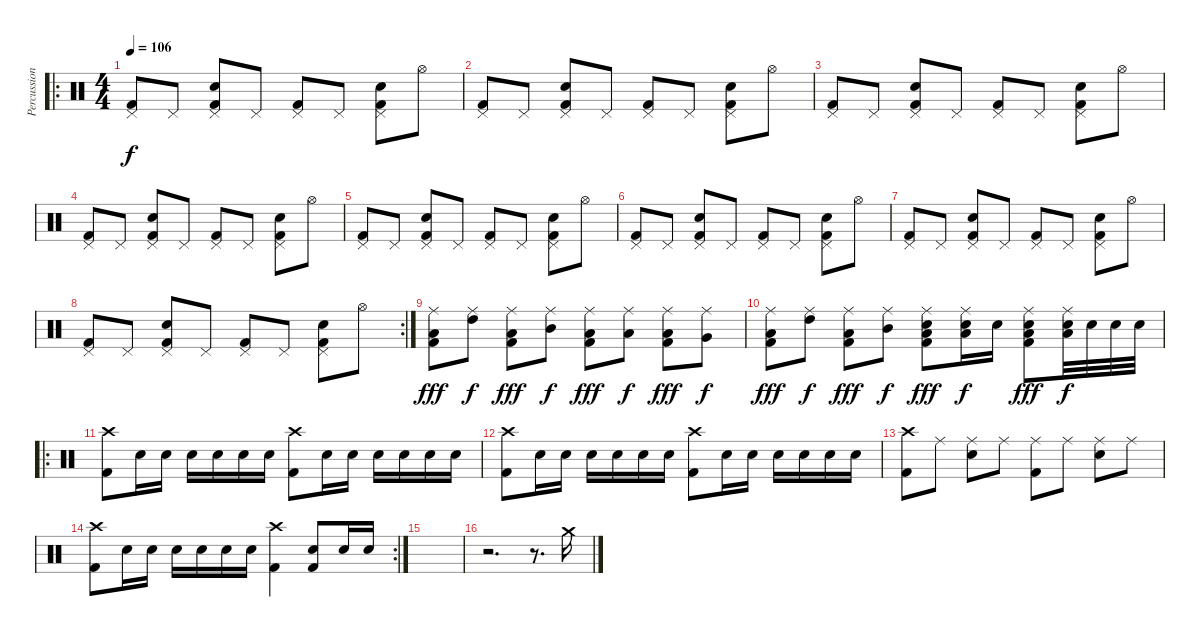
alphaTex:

\track ("Percussion" "Percussion") {instrument percussion}
\staff {score}
\articulation defaults
\ro
\ts (4 4)
\tempo 106
\clef neutral
\ks c
("Pedal Hi-Hat (hit)" "Kick (hit) 2").8{dy f} "Pedal Hi-Hat (hit)".8 ("Pedal Hi-Hat (hit)" "Electric Snare (hit)" "Kick (hit) 2").8 "Pedal Hi-Hat (hit)".8 ("Pedal Hi-Hat (hit)" "Kick (hit) 2").8 "Pedal Hi-Hat (hit)".8 ("Pedal Hi-Hat (hit)" "Electric Snare (hit)" "Kick (hit) 2").8 "Hi-Hat (open)".8 |
("Pedal Hi-Hat (hit)" "Kick (hit) 2").8 "Pedal Hi-Hat (hit)".8 ("Pedal Hi-Hat (hit)" "Electric Snare (hit)" "Kick (hit) 2").8 "Pedal Hi-Hat (hit)".8 ("Pedal Hi-Hat (hit)" "Kick (hit) 2").8 "Pedal Hi-Hat (hit)".8 ("Pedal Hi-Hat (hit)" "Electric Snare (hit)" "Kick (hit) 2").8 "Hi-Hat (open)".8 |
("Pedal Hi-Hat (hit)" "Kick (hit) 2").8 "Pedal Hi-Hat (hit)".8 ("Pedal Hi-Hat (hit)" "Electric Snare (hit)" "Kick (hit) 2").8 "Pedal Hi-Hat (hit)".8 ("Pedal Hi-Hat (hit)" "Kick (hit) 2").8 "Pedal Hi-Hat (hit)".8 ("Pedal Hi-Hat (hit)" "Electric Snare (hit)" "Kick (hit) 2").8 "Hi-Hat (open)".8 |
("Pedal Hi-Hat (hit)" "Kick (hit) 2").8 "Pedal Hi-Hat (hit)".8 ("Pedal Hi-Hat (hit)" "Electric Snare (hit)" "Kick (hit) 2").8 "Pedal Hi-Hat (hit)".8 ("Pedal Hi-Hat (hit)" "Kick (hit) 2").8 "Pedal Hi-Hat (hit)".8 ("Pedal Hi-Hat (hit)" "Electric Snare (hit)" "Kick (hit) 2").8 "Hi-Hat (open)".8 |
("Pedal Hi-Hat (hit)" "Kick (hit) 2").8 "Pedal Hi-Hat (hit)".8 ("Pedal Hi-Hat (hit)" "Electric Snare (hit)" "Kick (hit) 2").8 "Pedal Hi-Hat (hit)".8 ("Pedal Hi-Hat (hit)" "Kick (hit) 2").8 "Pedal Hi-Hat (hit)".8 ("Pedal Hi-Hat (hit)" "Electric Snare (hit)" "Kick (hit) 2").8 "Hi-Hat (open)".8 |
("Pedal Hi-Hat (hit)" "Kick (hit) 2").8 "Pedal Hi-Hat (hit)".8 ("Pedal Hi-Hat (hit)" "Electric Snare (hit)" "Kick (hit) 2").8 "Pedal Hi-Hat (hit)".8 ("Pedal Hi-Hat (hit)" "Kick (hit) 2").8 "Pedal Hi-Hat (hit)".8 ("Pedal Hi-Hat (hit)" "Electric Snare (hit)" "Kick (hit) 2").8 "Hi-Hat (open)".8 |
("Pedal Hi-Hat (hit)" "Kick (hit) 2").8 "Pedal Hi-Hat (hit)".8 ("Pedal Hi-Hat (hit)" "Electric Snare (hit)" "Kick (hit) 2").8 "Pedal Hi-Hat (hit)".8 ("Pedal Hi-Hat (hit)" "Kick (hit) 2").8 "Pedal Hi-Hat (hit)".8 ("Pedal Hi-Hat (hit)" "Electric Snare (hit)" "Kick (hit) 2").8 "Hi-Hat (open)".8 |
\rc 2
("Pedal Hi-Hat (hit)" "Kick (hit) 2").8 "Pedal Hi-Hat (hit)".8 ("Pedal Hi-Hat (hit)" "Electric Snare (hit)" "Kick (hit) 2").8 "Pedal Hi-Hat (hit)".8 ("Pedal Hi-Hat (hit)" "Kick (hit) 2").8 "Pedal Hi-Hat (hit)".8 ("Pedal Hi-Hat (hit)" "Electric Snare (hit)" "Kick (hit) 2").8 "Hi-Hat (open)".8 |
("Kick (hit) 2" "Low Floor Tom (hit)" "Ride (middle)").8{dy fff} ("High Tom (hit)" "Ride (middle)").8{dy f} ("Kick (hit) 2" "Low Floor Tom (hit)" "Ride (middle)").8{dy fff} ("Mid Tom (hit)" "Ride (middle)").8{dy f} ("Kick (hit) 2" "Low Floor Tom (hit)" "Ride (middle)").8{dy fff} ("Low Tom (hit)" "Ride (middle)").8{dy f} ("Kick (hit) 2" "Low Floor Tom (hit)" "Ride (middle)").8{dy fff} ("Very Low Tom (hit)" "Ride (middle)").8{dy f} |
("Kick (hit) 2" "Low Floor Tom (hit)" "Ride (middle)").8{dy fff} ("High Tom (hit)" "Ride (middle)").8{dy f} ("Kick (hit) 2" "Low Floor Tom (hit)" "Ride (middle)").8{dy fff} ("Mid Tom (hit)" "Ride (middle)").8{dy f} ("Kick (hit) 2" "Electric Snare (hit)" "Low Floor Tom (hit)" "Ride (middle)").8{dy fff} ("Electric Snare (hit)" "Low Tom (hit)" "Ride (middle)").16{dy f} "Electric Snare (hit)".16 ("Kick (hit) 2" "Electric Snare (hit)" "Low Floor Tom (hit)" "Ride (middle)").8{dy fff} ("Electric Snare (hit)" "Low Floor Tom (hit)" "Ride (middle)").32{dy f} "Electric Snare (hit)".32 "Electric Snare (hit)".32 "Electric Snare (hit)".32 |
\ro
("Crash high (hit)" "Kick (hit) 2").8 "Electric Snare (hit)".16 "Electric Snare (hit)".16 "Electric Snare (hit)".16 "Electric Snare (hit)".16 "Electric Snare (hit)".16 "Electric Snare (hit)".16 ("Crash high (hit)" "Kick (hit) 2").8 "Electric Snare (hit)".16 "Electric Snare (hit)".16 "Electric Snare (hit)".16 "Electric Snare (hit)".16 "Electric Snare (hit)".16 "Electric Snare (hit)".16 |
("Crash high (hit)" "Kick (hit) 2").8 "Electric Snare (hit)".16 "Electric Snare (hit)".16 "Electric Snare (hit)".16 "Electric Snare (hit)".16 "Electric Snare (hit)".16 "Electric Snare (hit)".16 ("Crash high (hit)" "Kick (hit) 2").8 "Electric Snare (hit)".16 "Electric Snare (hit)".16 "Electric Snare (hit)".16 "Electric Snare (hit)".16 "Electric Snare (hit)".16 "Electric Snare (hit)".16 |
("Crash high (hit)" "Kick (hit) 2").8 "Ride (middle)".8 ("Ride (middle)" "Electric Snare (hit)").8 "Ride (middle)".8 ("Ride (middle)" "Kick (hit) 2").8 "Ride (middle)".8 ("Ride (middle)" "Electric Snare (hit)").8 "Ride (middle)".8 |
\rc 2
("Crash high (hit)" "Kick (hit) 2").8 "Electric Snare (hit)".16 "Electric Snare (hit)".16 "Electric Snare (hit)".16 "Electric Snare (hit)".16 "Electric Snare (hit)".16 "Electric Snare (hit)".16 ("Crash high (hit)" "Kick (hit) 2").4 ("Electric Snare (hit)" "Kick (hit) 2").8 "Electric Snare (hit)".16 "Electric Snare (hit)".16 |
|
r.2{d} r.8{d} "Crash medium (hit)".16
